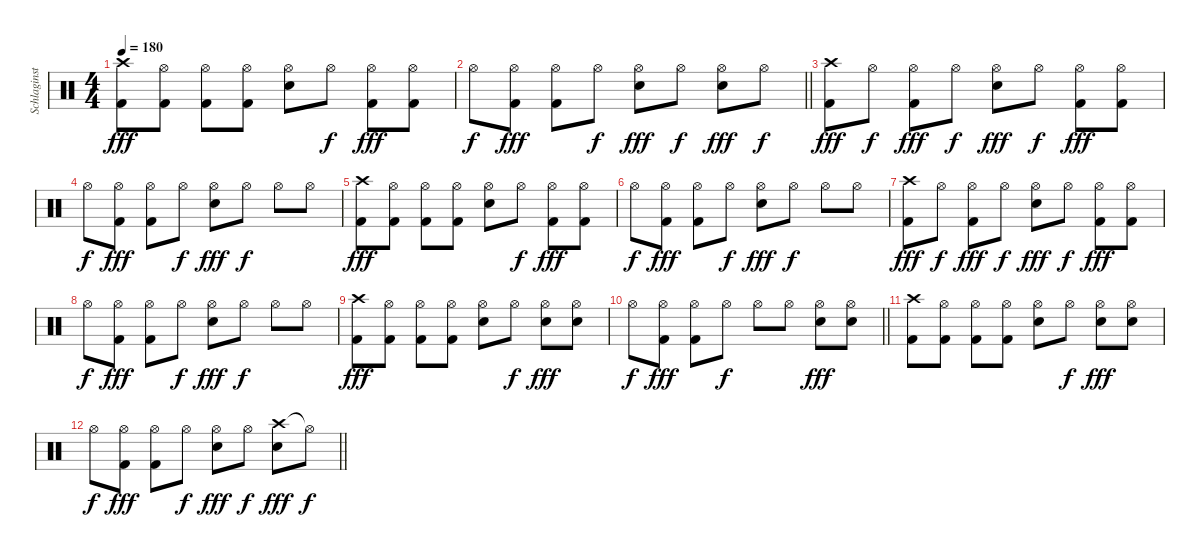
\track ("Schlaginstrumente - Auswahl" "Schlaginst") {instrument percussion}
\staff {score}
\articulation defaults
\ts (4 4)
\tempo 180
\clef neutral
\ks c
("Crash high (hit)" "Kick (hit) 2").8{dy fff} ("Hi-Hat (open)" "Kick (hit) 2").8 ("Hi-Hat (open)" "Kick (hit) 2").8 ("Hi-Hat (open)" "Kick (hit) 2").8 ("Hi-Hat (open)" "Snare (hit) 2").8 "Hi-Hat (open)".8{dy f} ("Hi-Hat (open)" "Kick (hit) 2").8{dy fff} ("Hi-Hat (open)" "Kick (hit) 2").8 |
\barLineRight lightlight "Hi-Hat (open)".8{dy f}
("Hi-Hat (open)" "Kick (hit) 2").8{dy fff} ("Hi-Hat (open)" "Kick (hit) 2").8 "Hi-Hat (open)".8{dy f} ("Hi-Hat (open)" "Snare (hit) 2").8{dy fff} "Hi-Hat (open)".8{dy f} ("Hi-Hat (open)" "Snare (hit) 2").8{dy fff} "Hi-Hat (open)".8{dy f} |
("Crash high (hit)" "Kick (hit) 2").8{dy fff} "Hi-Hat (open)".8{dy f} ("Hi-Hat (open)" "Kick (hit) 2").8{dy fff} "Hi-Hat (open)".8{dy f} ("Hi-Hat (open)" "Snare (hit) 2").8{dy fff} "Hi-Hat (open)".8{dy f} ("Hi-Hat (open)" "Kick (hit) 2").8{dy fff} ("Hi-Hat (open)" "Kick (hit) 2").8 |
"Hi-Hat (open)".8{dy f} ("Hi-Hat (open)" "Kick (hit) 2").8{dy fff} ("Hi-Hat (open)" "Kick (hit) 2").8 "Hi-Hat (open)".8{dy f} ("Hi-Hat (open)" "Snare (hit) 2").8{dy fff} "Hi-Hat (open)".8{dy f} "Hi-Hat (open)".8 "Hi-Hat (open)".8 |
("Crash high (hit)" "Kick (hit) 2").8{dy fff} ("Hi-Hat (open)" "Kick (hit) 2").8 ("Hi-Hat (open)" "Kick (hit) 2").8 ("Hi-Hat (open)" "Kick (hit) 2").8 ("Hi-Hat (open)" "Snare (hit) 2").8 "Hi-Hat (open)".8{dy f} ("Hi-Hat (open)" "Kick (hit) 2").8{dy fff} ("Hi-Hat (open)" "Kick (hit) 2").8 |
"Hi-Hat (open)".8{dy f} ("Hi-Hat (open)" "Kick (hit) 2").8{dy fff} ("Hi-Hat (open)" "Kick (hit) 2").8 "Hi-Hat (open)".8{dy f} ("Hi-Hat (open)" "Snare (hit) 2").8{dy fff} "Hi-Hat (open)".8{dy f} "Hi-Hat (open)".8 "Hi-Hat (open)".8 |
("Crash high (hit)" "Kick (hit) 2").8{dy fff} "Hi-Hat (open)".8{dy f} ("Hi-Hat (open)" "Kick (hit) 2").8{dy fff} "Hi-Hat (open)".8{dy f} ("Hi-Hat (open)" "Snare (hit) 2").8{dy fff} "Hi-Hat (open)".8{dy f} ("Hi-Hat (open)" "Kick (hit) 2").8{dy fff} ("Hi-Hat (open)" "Kick (hit) 2").8 |
"Hi-Hat (open)".8{dy f} ("Hi-Hat (open)" "Kick (hit) 2").8{dy fff} ("Hi-Hat (open)" "Kick (hit) 2").8 "Hi-Hat (open)".8{dy f} ("Hi-Hat (open)" "Snare (hit) 2").8{dy fff} "Hi-Hat (open)".8{dy f} "Hi-Hat (open)".8 "Hi-Hat (open)".8 |
("Crash high (hit)" "Kick (hit) 2").8{dy fff} ("Hi-Hat (open)" "Kick (hit) 2").8 ("Hi-Hat (open)" "Kick (hit) 2").8 ("Hi-Hat (open)" "Kick (hit) 2").8 ("Hi-Hat (open)" "Snare (hit) 2").8 "Hi-Hat (open)".8{dy f} ("Hi-Hat (open)" "Snare (hit) 2").8{dy fff} ("Hi-Hat (open)" "Snare (hit) 2").8 |
\barLineRight lightlight "Hi-Hat (open)".8{dy f}
("Hi-Hat (open)" "Kick (hit) 2").8{dy fff} ("Hi-Hat (open)" "Kick (hit) 2").8 "Hi-Hat (open)".8{dy f} "Hi-Hat (open)".8 "Hi-Hat (open)".8 ("Hi-Hat (open)" "Snare (hit) 2").8{dy fff} ("Hi-Hat (open)" "Snare (hit) 2").8 |
("Crash high (hit)" "Kick (hit) 2").8 ("Hi-Hat (open)" "Kick (hit) 2").8 ("Hi-Hat (open)" "Kick (hit) 2").8 ("Hi-Hat (open)" "Kick (hit) 2").8 ("Hi-Hat (open)" "Snare (hit) 2").8 "Hi-Hat (open)".8{dy f} ("Hi-Hat (open)" "Snare (hit) 2").8{dy fff} ("Hi-Hat (open)" "Snare (hit) 2").8 |
\barLineRight lightlight "Hi-Hat (open)".8{dy f}
("Hi-Hat (open)" "Kick (hit) 2").8{dy fff} ("Hi-Hat (open)" "Kick (hit) 2").8 "Hi-Hat (open)".8{dy f} ("Hi-Hat (open)" "Snare (hit) 2").8{dy fff} "Hi-Hat (open)".8{dy f} ("Crash high (hit)" "Snare (hit) 2").8{dy fff} "Hi-Hat (open)"{t}.8{dy f}
